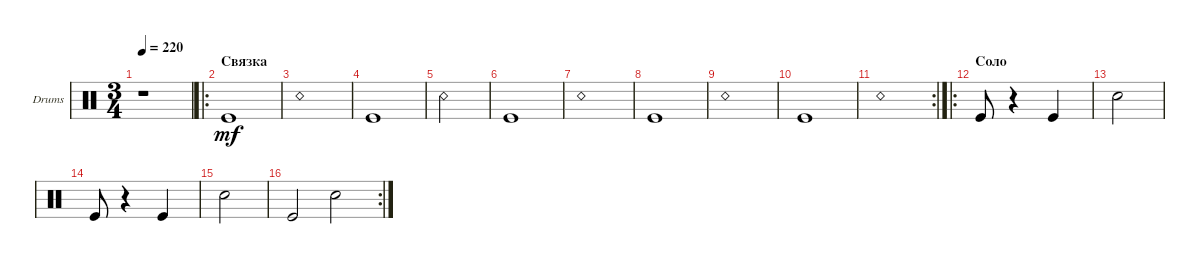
\defaultSystemsLayout 4
\bracketExtendMode groupsimilarinstruments
\firstSystemTrackNameOrientation horizontal
\otherSystemsTrackNameOrientation horizontal
\track ("Drumkit" "Drums") {instrument percussion}
\staff {score}
\articulation defaults
\ts (3 4)
\tempo 220
\clef neutral
\ks c
r.1{dy mf} |
\ro
\section ("" "Связка")
"Kick (hit)".1 |
"Snare (rim shot)".1 |
"Kick (hit)".1 |
"Snare (rim shot)".2 |
"Kick (hit)".1 |
"Snare (rim shot)".1 |
"Kick (hit)".1 |
"Snare (rim shot)".1 |
"Kick (hit)".1 |
\rc 2 "Snare (rim shot)".1
|
\ro
\section ("" "Соло")
"Kick (hit)".8 r.4 "Kick (hit)".4 |
"Snare (hit) 2".2 |
"Kick (hit)".8 r.4 "Kick (hit)".4 |
"Snare (hit) 2".2 |
\rc 2 "Kick (hit)".2 "Snare (hit) 2".2
